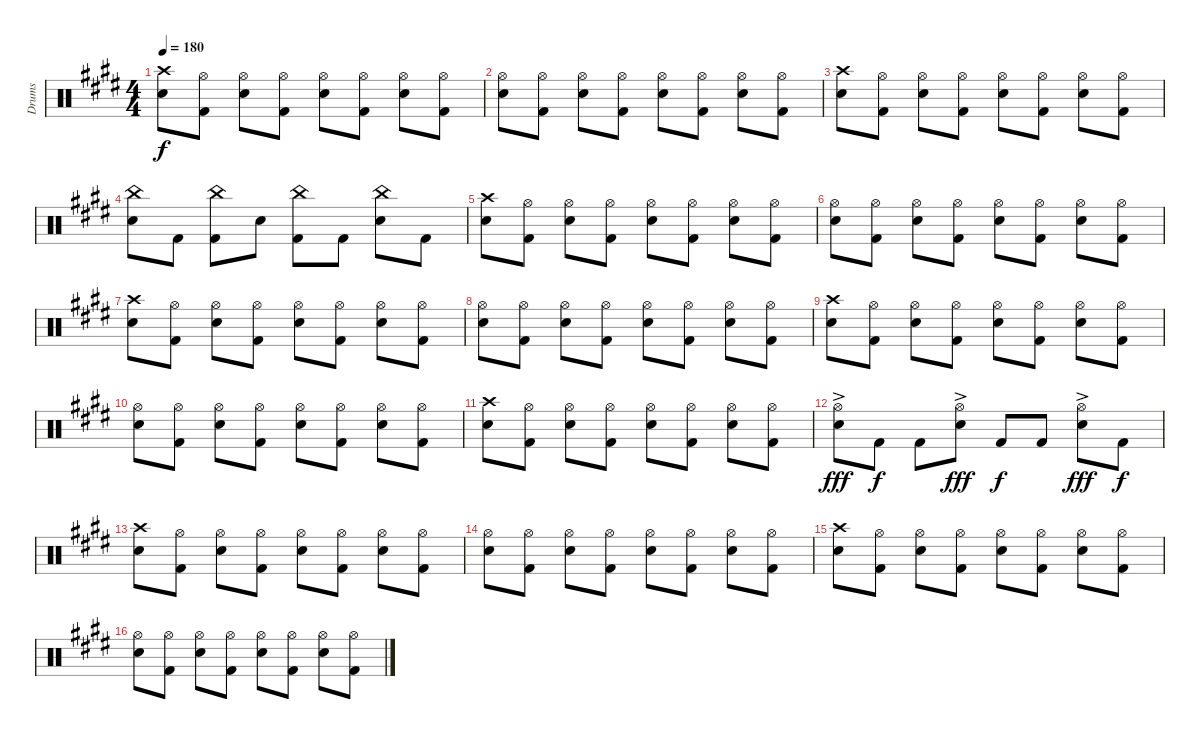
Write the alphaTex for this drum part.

\track ("Drums" "Drums") {instrument percussion}
\staff {score}
\articulation defaults
\ts (4 4)
\tempo 180
\clef neutral
\ks c#minor
("Crash high (hit)" "Snare (hit) 2").8{dy f} ("Hi-Hat (open)" "Kick (hit) 2").8 ("Hi-Hat (open)" "Snare (hit) 2").8 ("Hi-Hat (open)" "Kick (hit) 2").8 ("Hi-Hat (open)" "Snare (hit) 2").8 ("Hi-Hat (open)" "Kick (hit) 2").8 ("Hi-Hat (open)" "Snare (hit) 2").8 ("Hi-Hat (open)" "Kick (hit) 2").8 |
("Hi-Hat (open)" "Snare (hit) 2").8 ("Hi-Hat (open)" "Kick (hit) 2").8 ("Hi-Hat (open)" "Snare (hit) 2").8 ("Hi-Hat (open)" "Kick (hit) 2").8 ("Hi-Hat (open)" "Snare (hit) 2").8 ("Hi-Hat (open)" "Kick (hit) 2").8 ("Hi-Hat (open)" "Snare (hit) 2").8 ("Hi-Hat (open)" "Kick (hit) 2").8 |
("Crash high (hit)" "Snare (hit) 2").8 ("Hi-Hat (open)" "Kick (hit) 2").8 ("Hi-Hat (open)" "Snare (hit) 2").8 ("Hi-Hat (open)" "Kick (hit) 2").8 ("Hi-Hat (open)" "Snare (hit) 2").8 ("Hi-Hat (open)" "Kick (hit) 2").8 ("Hi-Hat (open)" "Snare (hit) 2").8 ("Hi-Hat (open)" "Kick (hit) 2").8 |
("China (hit)" "Snare (hit) 2").8 "Kick (hit) 2".8 ("China (hit)" "Kick (hit) 2").8 "Snare (hit) 2".8 ("China (hit)" "Kick (hit) 2").8 "Kick (hit) 2".8 ("China (hit)" "Snare (hit) 2").8 "Kick (hit) 2".8 |
("Crash high (hit)" "Snare (hit) 2").8 ("Hi-Hat (open)" "Kick (hit) 2").8 ("Hi-Hat (open)" "Snare (hit) 2").8 ("Hi-Hat (open)" "Kick (hit) 2").8 ("Hi-Hat (open)" "Snare (hit) 2").8 ("Hi-Hat (open)" "Kick (hit) 2").8 ("Hi-Hat (open)" "Snare (hit) 2").8 ("Hi-Hat (open)" "Kick (hit) 2").8 |
("Hi-Hat (open)" "Snare (hit) 2").8 ("Hi-Hat (open)" "Kick (hit) 2").8 ("Hi-Hat (open)" "Snare (hit) 2").8 ("Hi-Hat (open)" "Kick (hit) 2").8 ("Hi-Hat (open)" "Snare (hit) 2").8 ("Hi-Hat (open)" "Kick (hit) 2").8 ("Hi-Hat (open)" "Snare (hit) 2").8 ("Hi-Hat (open)" "Kick (hit) 2").8 |
("Crash high (hit)" "Snare (hit) 2").8 ("Hi-Hat (open)" "Kick (hit) 2").8 ("Hi-Hat (open)" "Snare (hit) 2").8 ("Hi-Hat (open)" "Kick (hit) 2").8 ("Hi-Hat (open)" "Snare (hit) 2").8 ("Hi-Hat (open)" "Kick (hit) 2").8 ("Hi-Hat (open)" "Snare (hit) 2").8 ("Hi-Hat (open)" "Kick (hit) 2").8 |
("Hi-Hat (open)" "Snare (hit) 2").8 ("Hi-Hat (open)" "Kick (hit) 2").8 ("Hi-Hat (open)" "Snare (hit) 2").8 ("Hi-Hat (open)" "Kick (hit) 2").8 ("Hi-Hat (open)" "Snare (hit) 2").8 ("Hi-Hat (open)" "Kick (hit) 2").8 ("Hi-Hat (open)" "Snare (hit) 2").8 ("Hi-Hat (open)" "Kick (hit) 2").8 |
("Crash high (hit)" "Snare (hit) 2").8 ("Hi-Hat (open)" "Kick (hit) 2").8 ("Hi-Hat (open)" "Snare (hit) 2").8 ("Hi-Hat (open)" "Kick (hit) 2").8 ("Hi-Hat (open)" "Snare (hit) 2").8 ("Hi-Hat (open)" "Kick (hit) 2").8 ("Hi-Hat (open)" "Snare (hit) 2").8 ("Hi-Hat (open)" "Kick (hit) 2").8 |
("Hi-Hat (open)" "Snare (hit) 2").8 ("Hi-Hat (open)" "Kick (hit) 2").8 ("Hi-Hat (open)" "Snare (hit) 2").8 ("Hi-Hat (open)" "Kick (hit) 2").8 ("Hi-Hat (open)" "Snare (hit) 2").8 ("Hi-Hat (open)" "Kick (hit) 2").8 ("Hi-Hat (open)" "Snare (hit) 2").8 ("Hi-Hat (open)" "Kick (hit) 2").8 |
("Crash high (hit)" "Snare (hit) 2").8 ("Hi-Hat (open)" "Kick (hit) 2").8 ("Hi-Hat (open)" "Snare (hit) 2").8 ("Hi-Hat (open)" "Kick (hit) 2").8 ("Hi-Hat (open)" "Snare (hit) 2").8 ("Hi-Hat (open)" "Kick (hit) 2").8 ("Hi-Hat (open)" "Snare (hit) 2").8 ("Hi-Hat (open)" "Kick (hit) 2").8 |
("Hi-Hat (open)"{ac} "Snare (hit) 2").8{dy fff} "Kick (hit) 2".8{dy f} "Kick (hit) 2".8 ("Hi-Hat (open)"{ac} "Snare (hit) 2").8{dy fff} "Kick (hit) 2".8{dy f} "Kick (hit) 2".8 ("Hi-Hat (open)"{ac} "Snare (hit) 2").8{dy fff} "Kick (hit) 2".8{dy f} |
("Crash high (hit)" "Snare (hit) 2").8 ("Hi-Hat (open)" "Kick (hit) 2").8 ("Hi-Hat (open)" "Snare (hit) 2").8 ("Hi-Hat (open)" "Kick (hit) 2").8 ("Hi-Hat (open)" "Snare (hit) 2").8 ("Hi-Hat (open)" "Kick (hit) 2").8 ("Hi-Hat (open)" "Snare (hit) 2").8 ("Hi-Hat (open)" "Kick (hit) 2").8 |
("Hi-Hat (open)" "Snare (hit) 2").8 ("Hi-Hat (open)" "Kick (hit) 2").8 ("Hi-Hat (open)" "Snare (hit) 2").8 ("Hi-Hat (open)" "Kick (hit) 2").8 ("Hi-Hat (open)" "Snare (hit) 2").8 ("Hi-Hat (open)" "Kick (hit) 2").8 ("Hi-Hat (open)" "Snare (hit) 2").8 ("Hi-Hat (open)" "Kick (hit) 2").8 |
("Crash high (hit)" "Snare (hit) 2").8 ("Hi-Hat (open)" "Kick (hit) 2").8 ("Hi-Hat (open)" "Snare (hit) 2").8 ("Hi-Hat (open)" "Kick (hit) 2").8 ("Hi-Hat (open)" "Snare (hit) 2").8 ("Hi-Hat (open)" "Kick (hit) 2").8 ("Hi-Hat (open)" "Snare (hit) 2").8 ("Hi-Hat (open)" "Kick (hit) 2").8 |
("Hi-Hat (open)" "Snare (hit) 2").8 ("Hi-Hat (open)" "Kick (hit) 2").8 ("Hi-Hat (open)" "Snare (hit) 2").8 ("Hi-Hat (open)" "Kick (hit) 2").8 ("Hi-Hat (open)" "Snare (hit) 2").8 ("Hi-Hat (open)" "Kick (hit) 2").8 ("Hi-Hat (open)" "Snare (hit) 2").8 ("Hi-Hat (open)" "Kick (hit) 2").8
